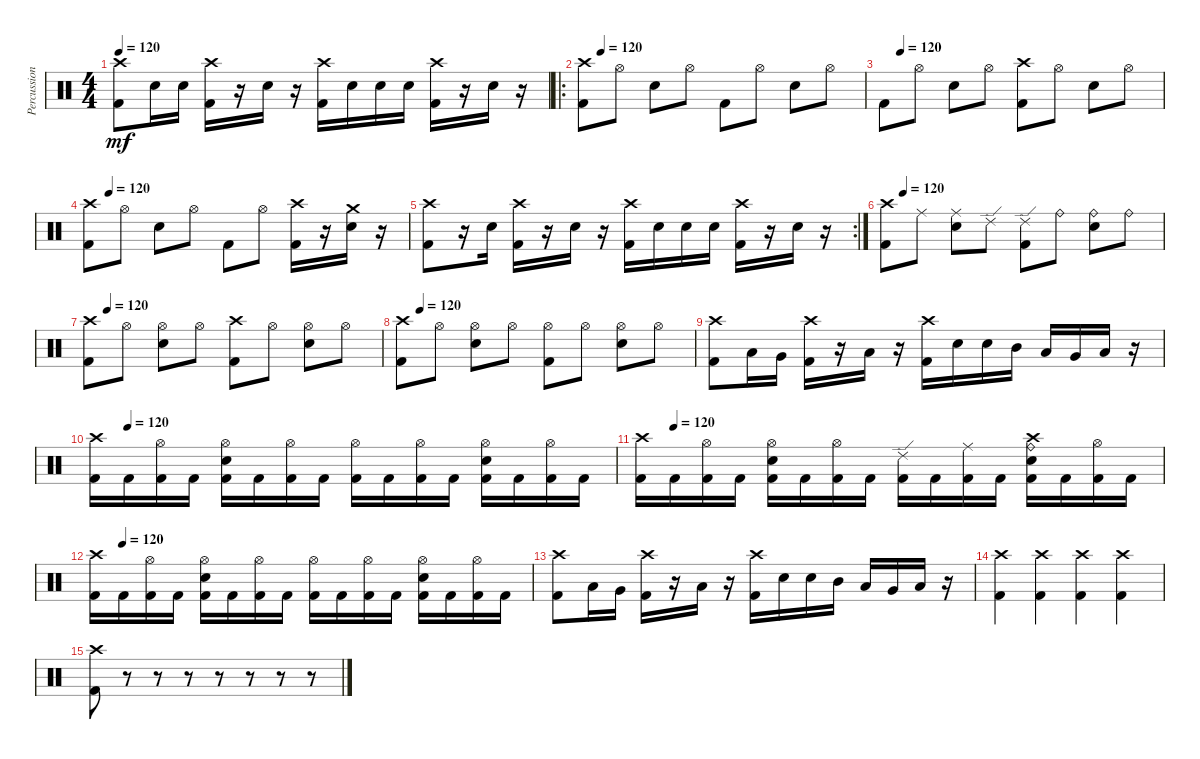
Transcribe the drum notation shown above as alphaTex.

\track ("Percussion" "Percussion") {instrument percussion}
\staff {score}
\articulation defaults
\ts (4 4)
\tempo 120
\clef neutral
\ks c
("Crash high (hit)" "Kick (hit) 2").8{dy mf} "Snare (hit) 2".16 "Snare (hit) 2".16 ("Crash high (hit)" "Kick (hit) 2").16 r.16 "Snare (hit) 2".16 r.16 ("Crash high (hit)" "Kick (hit) 2").16 "Snare (hit) 2".16 "Snare (hit) 2".16 "Snare (hit) 2".16 ("Crash high (hit)" "Kick (hit) 2").16 r.16 "Snare (hit) 2".16 r.16 |
\ro
\tempo (120 0.0625)
("Crash high (hit)" "Kick (hit) 2").8 "Hi-Hat (open)".8 "Snare (hit) 2".8 "Hi-Hat (open)".8 "Kick (hit) 2".8 "Hi-Hat (open)".8 "Snare (hit) 2".8 "Hi-Hat (open)".8 |
\tempo (120 0.0625)
"Kick (hit) 2".8 "Hi-Hat (open)".8 "Snare (hit) 2".8 "Hi-Hat (open)".8 ("Crash high (hit)" "Kick (hit) 2").8 "Hi-Hat (open)".8 "Snare (hit) 2".8 "Hi-Hat (open)".8 |
\tempo (120 0.0625)
("Crash high (hit)" "Kick (hit) 2").8 "Hi-Hat (open)".8 "Snare (hit) 2".8 "Hi-Hat (open)".8 "Kick (hit) 2".8 "Hi-Hat (open)".8 ("Crash high (hit)" "Kick (hit) 2").16 r.16 ("Crash medium (hit)" "Snare (hit) 2").16 r.16 |
\rc 2
("Crash high (hit)" "Kick (hit) 2").8 r.16 "Snare (hit) 2".16 ("Crash high (hit)" "Kick (hit) 2").16 r.16 "Snare (hit) 2".16 r.16 ("Crash high (hit)" "Kick (hit) 2").16 "Snare (hit) 2".16 "Snare (hit) 2".16 "Snare (hit) 2".16 ("Crash high (hit)" "Kick (hit) 2").16 r.16 "Snare (hit) 2".16 r.16 |
\tempo (120 0.0625)
("Crash high (hit)" "Kick (hit) 2").8 "Ride (middle)".8 ("Ride (middle)" "Snare (hit) 2").8 "Ride (edge) 2".8 ("Ride (edge) 2" "Kick (hit) 2").8 "Ride (bell)".8 ("Ride (bell)" "Snare (hit) 2").8 "Ride (bell)".8 |
\tempo (120 0.0625)
("Crash high (hit)" "Kick (hit) 2").8 "Hi-Hat (open)".8 ("Hi-Hat (open)" "Snare (hit) 2").8 "Hi-Hat (open)".8 ("Crash high (hit)" "Kick (hit) 2").8 "Hi-Hat (open)".8 ("Hi-Hat (open)" "Snare (hit) 2").8 "Hi-Hat (open)".8 |
\tempo (120 0.0625)
("Crash high (hit)" "Kick (hit) 2").8 "Hi-Hat (open)".8 ("Hi-Hat (open)" "Snare (hit) 2").8 "Hi-Hat (open)".8 ("Hi-Hat (open)" "Kick (hit) 2").8 "Hi-Hat (open)".8 ("Hi-Hat (open)" "Snare (hit) 2").8 "Hi-Hat (open)".8 |
("Crash high (hit)" "Kick (hit) 2").8 "Low Tom (hit)".16 "Very Low Tom (hit)".16 ("Crash high (hit)" "Kick (hit) 2").16 r.16 "Low Floor Tom (hit)".16 r.16 ("Crash high (hit)" "Kick (hit) 2").16 "Snare (hit) 2".16 "Snare (hit) 2".16 "Mid Tom (hit)".16 "Low Tom (hit)".16 "Very Low Tom (hit)".16 "Low Floor Tom (hit)".16 r.16 |
\tempo (120 0.0625)
("Crash high (hit)" "Kick (hit) 2").16 "Kick (hit) 2".16 ("Hi-Hat (open)" "Kick (hit) 2").16 "Kick (hit) 2".16 ("Hi-Hat (open)" "Snare (hit) 2" "Kick (hit) 2").16 "Kick (hit) 2".16 ("Hi-Hat (open)" "Kick (hit) 2").16 "Kick (hit) 2".16 ("Hi-Hat (open)" "Kick (hit) 2").16 "Kick (hit) 2".16 ("Hi-Hat (open)" "Kick (hit) 2").16 "Kick (hit) 2".16 ("Hi-Hat (open)" "Snare (hit) 2" "Kick (hit) 2").16 "Kick (hit) 2".16 ("Hi-Hat (open)" "Kick (hit) 2").16 "Kick (hit) 2".16 |
\tempo (120 0.0625)
("Crash high (hit)" "Kick (hit) 2").16 "Kick (hit) 2".16 ("Hi-Hat (open)" "Kick (hit) 2").16 "Kick (hit) 2".16 ("Hi-Hat (open)" "Snare (hit) 2" "Kick (hit) 2").16 "Kick (hit) 2".16 ("Hi-Hat (open)" "Kick (hit) 2").16 "Kick (hit) 2".16 ("Ride (edge) 2" "Kick (hit) 2").16 "Kick (hit) 2".16 ("Ride (middle)" "Kick (hit) 2").16 "Kick (hit) 2".16 ("Crash high (hit)" "Ride (bell)" "Snare (hit) 2" "Kick (hit) 2").16 "Kick (hit) 2".16 ("Hi-Hat (open)" "Kick (hit) 2").16 "Kick (hit) 2".16 |
\tempo (120 0.0625)
("Crash high (hit)" "Kick (hit) 2").16 "Kick (hit) 2".16 ("Hi-Hat (open)" "Kick (hit) 2").16 "Kick (hit) 2".16 ("Hi-Hat (open)" "Snare (hit) 2" "Kick (hit) 2").16 "Kick (hit) 2".16 ("Hi-Hat (open)" "Kick (hit) 2").16 "Kick (hit) 2".16 ("Hi-Hat (open)" "Kick (hit) 2").16 "Kick (hit) 2".16 ("Hi-Hat (open)" "Kick (hit) 2").16 "Kick (hit) 2".16 ("Hi-Hat (open)" "Snare (hit) 2" "Kick (hit) 2").16 "Kick (hit) 2".16 ("Hi-Hat (open)" "Kick (hit) 2").16 "Kick (hit) 2".16 |
("Crash high (hit)" "Kick (hit) 2").8 "Low Tom (hit)".16 "Very Low Tom (hit)".16 ("Crash high (hit)" "Kick (hit) 2").16 r.16 "Low Floor Tom (hit)".16 r.16 ("Crash high (hit)" "Kick (hit) 2").16 "Snare (hit) 2".16 "Snare (hit) 2".16 "Mid Tom (hit)".16 "Low Tom (hit)".16 "Very Low Tom (hit)".16 "Low Floor Tom (hit)".16 r.16 |
("Crash high (hit)" "Kick (hit) 2").4 ("Crash high (hit)" "Kick (hit) 2").4 ("Crash high (hit)" "Kick (hit) 2").4 ("Crash high (hit)" "Kick (hit) 2").4 |
("Crash high (hit)" "Kick (hit) 2").8 r.8 r.8 r.8 r.8 r.8 r.8 r.8
